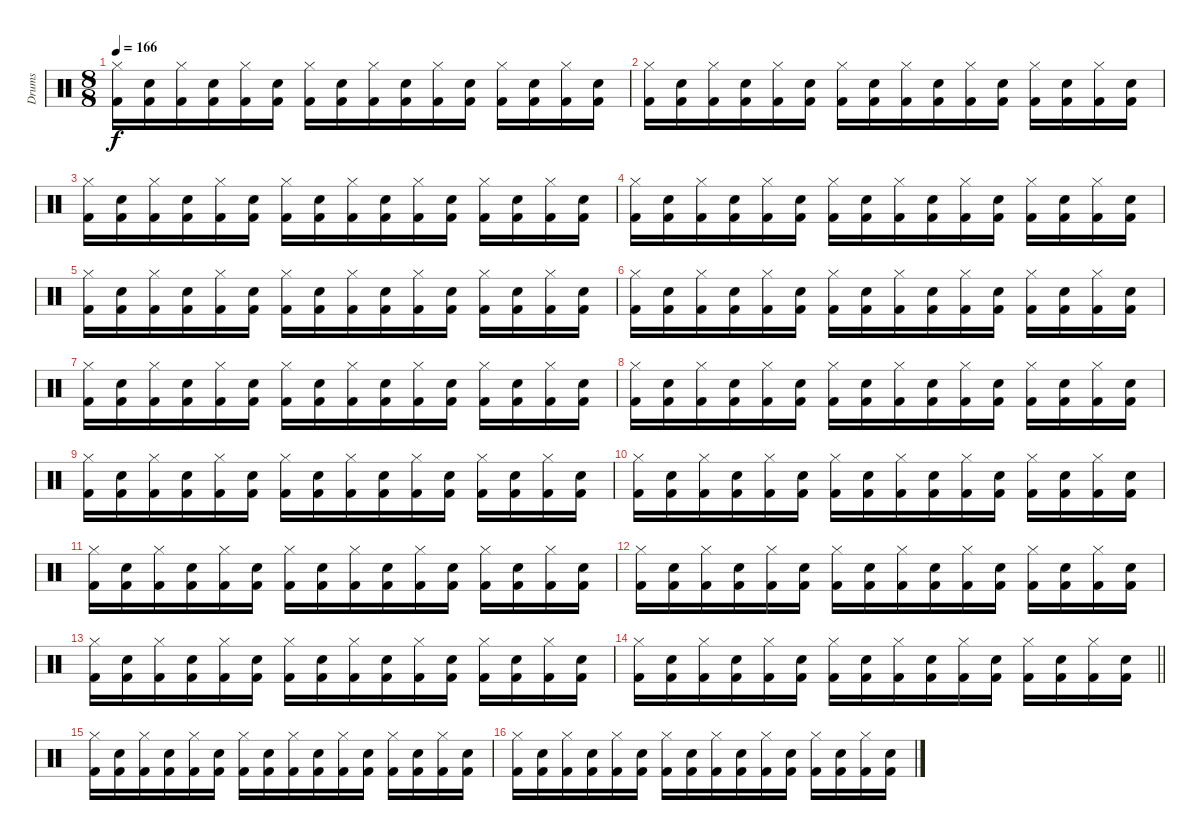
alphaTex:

\track ("Drums" "Drums") {instrument percussion}
\staff {score}
\articulation defaults
\ts (8 8)
\tempo 166
\clef neutral
\ks c
("Hi-Hat (closed)" "Kick (hit) 2").16{dy f} ("Electric Snare (hit)" "Kick (hit) 2").16 ("Hi-Hat (closed)" "Kick (hit) 2").16 ("Electric Snare (hit)" "Kick (hit) 2").16 ("Hi-Hat (closed)" "Kick (hit) 2").16 ("Electric Snare (hit)" "Kick (hit) 2").16 ("Hi-Hat (closed)" "Kick (hit) 2").16 ("Electric Snare (hit)" "Kick (hit) 2").16 ("Hi-Hat (closed)" "Kick (hit) 2").16 ("Electric Snare (hit)" "Kick (hit) 2").16 ("Hi-Hat (closed)" "Kick (hit) 2").16 ("Electric Snare (hit)" "Kick (hit) 2").16 ("Hi-Hat (closed)" "Kick (hit) 2").16 ("Electric Snare (hit)" "Kick (hit) 2").16 ("Hi-Hat (closed)" "Kick (hit) 2").16 ("Electric Snare (hit)" "Kick (hit) 2").16 |
("Hi-Hat (closed)" "Kick (hit) 2").16 ("Electric Snare (hit)" "Kick (hit) 2").16 ("Hi-Hat (closed)" "Kick (hit) 2").16 ("Electric Snare (hit)" "Kick (hit) 2").16 ("Hi-Hat (closed)" "Kick (hit) 2").16 ("Electric Snare (hit)" "Kick (hit) 2").16 ("Hi-Hat (closed)" "Kick (hit) 2").16 ("Electric Snare (hit)" "Kick (hit) 2").16 ("Hi-Hat (closed)" "Kick (hit) 2").16 ("Electric Snare (hit)" "Kick (hit) 2").16 ("Hi-Hat (closed)" "Kick (hit) 2").16 ("Electric Snare (hit)" "Kick (hit) 2").16 ("Hi-Hat (closed)" "Kick (hit) 2").16 ("Electric Snare (hit)" "Kick (hit) 2").16 ("Hi-Hat (closed)" "Kick (hit) 2").16 ("Electric Snare (hit)" "Kick (hit) 2").16 |
("Hi-Hat (closed)" "Kick (hit) 2").16 ("Electric Snare (hit)" "Kick (hit) 2").16 ("Hi-Hat (closed)" "Kick (hit) 2").16 ("Electric Snare (hit)" "Kick (hit) 2").16 ("Hi-Hat (closed)" "Kick (hit) 2").16 ("Electric Snare (hit)" "Kick (hit) 2").16 ("Hi-Hat (closed)" "Kick (hit) 2").16 ("Electric Snare (hit)" "Kick (hit) 2").16 ("Hi-Hat (closed)" "Kick (hit) 2").16 ("Electric Snare (hit)" "Kick (hit) 2").16 ("Hi-Hat (closed)" "Kick (hit) 2").16 ("Electric Snare (hit)" "Kick (hit) 2").16 ("Hi-Hat (closed)" "Kick (hit) 2").16 ("Electric Snare (hit)" "Kick (hit) 2").16 ("Hi-Hat (closed)" "Kick (hit) 2").16 ("Electric Snare (hit)" "Kick (hit) 2").16 |
("Hi-Hat (closed)" "Kick (hit) 2").16 ("Electric Snare (hit)" "Kick (hit) 2").16 ("Hi-Hat (closed)" "Kick (hit) 2").16 ("Electric Snare (hit)" "Kick (hit) 2").16 ("Hi-Hat (closed)" "Kick (hit) 2").16 ("Electric Snare (hit)" "Kick (hit) 2").16 ("Hi-Hat (closed)" "Kick (hit) 2").16 ("Electric Snare (hit)" "Kick (hit) 2").16 ("Hi-Hat (closed)" "Kick (hit) 2").16 ("Electric Snare (hit)" "Kick (hit) 2").16 ("Hi-Hat (closed)" "Kick (hit) 2").16 ("Electric Snare (hit)" "Kick (hit) 2").16 ("Hi-Hat (closed)" "Kick (hit) 2").16 ("Electric Snare (hit)" "Kick (hit) 2").16 ("Hi-Hat (closed)" "Kick (hit) 2").16 ("Electric Snare (hit)" "Kick (hit) 2").16 |
("Hi-Hat (closed)" "Kick (hit) 2").16 ("Electric Snare (hit)" "Kick (hit) 2").16 ("Hi-Hat (closed)" "Kick (hit) 2").16 ("Electric Snare (hit)" "Kick (hit) 2").16 ("Hi-Hat (closed)" "Kick (hit) 2").16 ("Electric Snare (hit)" "Kick (hit) 2").16 ("Hi-Hat (closed)" "Kick (hit) 2").16 ("Electric Snare (hit)" "Kick (hit) 2").16 ("Hi-Hat (closed)" "Kick (hit) 2").16 ("Electric Snare (hit)" "Kick (hit) 2").16 ("Hi-Hat (closed)" "Kick (hit) 2").16 ("Electric Snare (hit)" "Kick (hit) 2").16 ("Hi-Hat (closed)" "Kick (hit) 2").16 ("Electric Snare (hit)" "Kick (hit) 2").16 ("Hi-Hat (closed)" "Kick (hit) 2").16 ("Electric Snare (hit)" "Kick (hit) 2").16 |
("Hi-Hat (closed)" "Kick (hit) 2").16 ("Electric Snare (hit)" "Kick (hit) 2").16 ("Hi-Hat (closed)" "Kick (hit) 2").16 ("Electric Snare (hit)" "Kick (hit) 2").16 ("Hi-Hat (closed)" "Kick (hit) 2").16 ("Electric Snare (hit)" "Kick (hit) 2").16 ("Hi-Hat (closed)" "Kick (hit) 2").16 ("Electric Snare (hit)" "Kick (hit) 2").16 ("Hi-Hat (closed)" "Kick (hit) 2").16 ("Electric Snare (hit)" "Kick (hit) 2").16 ("Hi-Hat (closed)" "Kick (hit) 2").16 ("Electric Snare (hit)" "Kick (hit) 2").16 ("Hi-Hat (closed)" "Kick (hit) 2").16 ("Electric Snare (hit)" "Kick (hit) 2").16 ("Hi-Hat (closed)" "Kick (hit) 2").16 ("Electric Snare (hit)" "Kick (hit) 2").16 |
("Hi-Hat (closed)" "Kick (hit) 2").16 ("Electric Snare (hit)" "Kick (hit) 2").16 ("Hi-Hat (closed)" "Kick (hit) 2").16 ("Electric Snare (hit)" "Kick (hit) 2").16 ("Hi-Hat (closed)" "Kick (hit) 2").16 ("Electric Snare (hit)" "Kick (hit) 2").16 ("Hi-Hat (closed)" "Kick (hit) 2").16 ("Electric Snare (hit)" "Kick (hit) 2").16 ("Hi-Hat (closed)" "Kick (hit) 2").16 ("Electric Snare (hit)" "Kick (hit) 2").16 ("Hi-Hat (closed)" "Kick (hit) 2").16 ("Electric Snare (hit)" "Kick (hit) 2").16 ("Hi-Hat (closed)" "Kick (hit) 2").16 ("Electric Snare (hit)" "Kick (hit) 2").16 ("Hi-Hat (closed)" "Kick (hit) 2").16 ("Electric Snare (hit)" "Kick (hit) 2").16 |
("Hi-Hat (closed)" "Kick (hit) 2").16 ("Electric Snare (hit)" "Kick (hit) 2").16 ("Hi-Hat (closed)" "Kick (hit) 2").16 ("Electric Snare (hit)" "Kick (hit) 2").16 ("Hi-Hat (closed)" "Kick (hit) 2").16 ("Electric Snare (hit)" "Kick (hit) 2").16 ("Hi-Hat (closed)" "Kick (hit) 2").16 ("Electric Snare (hit)" "Kick (hit) 2").16 ("Hi-Hat (closed)" "Kick (hit) 2").16 ("Electric Snare (hit)" "Kick (hit) 2").16 ("Hi-Hat (closed)" "Kick (hit) 2").16 ("Electric Snare (hit)" "Kick (hit) 2").16 ("Hi-Hat (closed)" "Kick (hit) 2").16 ("Electric Snare (hit)" "Kick (hit) 2").16 ("Hi-Hat (closed)" "Kick (hit) 2").16 ("Electric Snare (hit)" "Kick (hit) 2").16 |
("Hi-Hat (closed)" "Kick (hit) 2").16 ("Electric Snare (hit)" "Kick (hit) 2").16 ("Hi-Hat (closed)" "Kick (hit) 2").16 ("Electric Snare (hit)" "Kick (hit) 2").16 ("Hi-Hat (closed)" "Kick (hit) 2").16 ("Electric Snare (hit)" "Kick (hit) 2").16 ("Hi-Hat (closed)" "Kick (hit) 2").16 ("Electric Snare (hit)" "Kick (hit) 2").16 ("Hi-Hat (closed)" "Kick (hit) 2").16 ("Electric Snare (hit)" "Kick (hit) 2").16 ("Hi-Hat (closed)" "Kick (hit) 2").16 ("Electric Snare (hit)" "Kick (hit) 2").16 ("Hi-Hat (closed)" "Kick (hit) 2").16 ("Electric Snare (hit)" "Kick (hit) 2").16 ("Hi-Hat (closed)" "Kick (hit) 2").16 ("Electric Snare (hit)" "Kick (hit) 2").16 |
("Hi-Hat (closed)" "Kick (hit) 2").16 ("Electric Snare (hit)" "Kick (hit) 2").16 ("Hi-Hat (closed)" "Kick (hit) 2").16 ("Electric Snare (hit)" "Kick (hit) 2").16 ("Hi-Hat (closed)" "Kick (hit) 2").16 ("Electric Snare (hit)" "Kick (hit) 2").16 ("Hi-Hat (closed)" "Kick (hit) 2").16 ("Electric Snare (hit)" "Kick (hit) 2").16 ("Hi-Hat (closed)" "Kick (hit) 2").16 ("Electric Snare (hit)" "Kick (hit) 2").16 ("Hi-Hat (closed)" "Kick (hit) 2").16 ("Electric Snare (hit)" "Kick (hit) 2").16 ("Hi-Hat (closed)" "Kick (hit) 2").16 ("Electric Snare (hit)" "Kick (hit) 2").16 ("Hi-Hat (closed)" "Kick (hit) 2").16 ("Electric Snare (hit)" "Kick (hit) 2").16 |
("Hi-Hat (closed)" "Kick (hit) 2").16 ("Electric Snare (hit)" "Kick (hit) 2").16 ("Hi-Hat (closed)" "Kick (hit) 2").16 ("Electric Snare (hit)" "Kick (hit) 2").16 ("Hi-Hat (closed)" "Kick (hit) 2").16 ("Electric Snare (hit)" "Kick (hit) 2").16 ("Hi-Hat (closed)" "Kick (hit) 2").16 ("Electric Snare (hit)" "Kick (hit) 2").16 ("Hi-Hat (closed)" "Kick (hit) 2").16 ("Electric Snare (hit)" "Kick (hit) 2").16 ("Hi-Hat (closed)" "Kick (hit) 2").16 ("Electric Snare (hit)" "Kick (hit) 2").16 ("Hi-Hat (closed)" "Kick (hit) 2").16 ("Electric Snare (hit)" "Kick (hit) 2").16 ("Hi-Hat (closed)" "Kick (hit) 2").16 ("Electric Snare (hit)" "Kick (hit) 2").16 |
("Hi-Hat (closed)" "Kick (hit) 2").16 ("Electric Snare (hit)" "Kick (hit) 2").16 ("Hi-Hat (closed)" "Kick (hit) 2").16 ("Electric Snare (hit)" "Kick (hit) 2").16 ("Hi-Hat (closed)" "Kick (hit) 2").16 ("Electric Snare (hit)" "Kick (hit) 2").16 ("Hi-Hat (closed)" "Kick (hit) 2").16 ("Electric Snare (hit)" "Kick (hit) 2").16 ("Hi-Hat (closed)" "Kick (hit) 2").16 ("Electric Snare (hit)" "Kick (hit) 2").16 ("Hi-Hat (closed)" "Kick (hit) 2").16 ("Electric Snare (hit)" "Kick (hit) 2").16 ("Hi-Hat (closed)" "Kick (hit) 2").16 ("Electric Snare (hit)" "Kick (hit) 2").16 ("Hi-Hat (closed)" "Kick (hit) 2").16 ("Electric Snare (hit)" "Kick (hit) 2").16 |
("Hi-Hat (closed)" "Kick (hit) 2").16 ("Electric Snare (hit)" "Kick (hit) 2").16 ("Hi-Hat (closed)" "Kick (hit) 2").16 ("Electric Snare (hit)" "Kick (hit) 2").16 ("Hi-Hat (closed)" "Kick (hit) 2").16 ("Electric Snare (hit)" "Kick (hit) 2").16 ("Hi-Hat (closed)" "Kick (hit) 2").16 ("Electric Snare (hit)" "Kick (hit) 2").16 ("Hi-Hat (closed)" "Kick (hit) 2").16 ("Electric Snare (hit)" "Kick (hit) 2").16 ("Hi-Hat (closed)" "Kick (hit) 2").16 ("Electric Snare (hit)" "Kick (hit) 2").16 ("Hi-Hat (closed)" "Kick (hit) 2").16 ("Electric Snare (hit)" "Kick (hit) 2").16 ("Hi-Hat (closed)" "Kick (hit) 2").16 ("Electric Snare (hit)" "Kick (hit) 2").16 |
\barLineRight lightlight
("Hi-Hat (closed)" "Kick (hit) 2").16 ("Electric Snare (hit)" "Kick (hit) 2").16 ("Hi-Hat (closed)" "Kick (hit) 2").16 ("Electric Snare (hit)" "Kick (hit) 2").16 ("Hi-Hat (closed)" "Kick (hit) 2").16 ("Electric Snare (hit)" "Kick (hit) 2").16 ("Hi-Hat (closed)" "Kick (hit) 2").16 ("Electric Snare (hit)" "Kick (hit) 2").16 ("Hi-Hat (closed)" "Kick (hit) 2").16 ("Electric Snare (hit)" "Kick (hit) 2").16 ("Hi-Hat (closed)" "Kick (hit) 2").16 ("Electric Snare (hit)" "Kick (hit) 2").16 ("Hi-Hat (closed)" "Kick (hit) 2").16 ("Electric Snare (hit)" "Kick (hit) 2").16 ("Hi-Hat (closed)" "Kick (hit) 2").16 ("Electric Snare (hit)" "Kick (hit) 2").16 |
\section ("" "")
("Hi-Hat (closed)" "Kick (hit) 2").16 ("Electric Snare (hit)" "Kick (hit) 2").16 ("Hi-Hat (closed)" "Kick (hit) 2").16 ("Electric Snare (hit)" "Kick (hit) 2").16 ("Hi-Hat (closed)" "Kick (hit) 2").16 ("Electric Snare (hit)" "Kick (hit) 2").16 ("Hi-Hat (closed)" "Kick (hit) 2").16 ("Electric Snare (hit)" "Kick (hit) 2").16 ("Hi-Hat (closed)" "Kick (hit) 2").16 ("Electric Snare (hit)" "Kick (hit) 2").16 ("Hi-Hat (closed)" "Kick (hit) 2").16 ("Electric Snare (hit)" "Kick (hit) 2").16 ("Hi-Hat (closed)" "Kick (hit) 2").16 ("Electric Snare (hit)" "Kick (hit) 2").16 ("Hi-Hat (closed)" "Kick (hit) 2").16 ("Electric Snare (hit)" "Kick (hit) 2").16 |
("Hi-Hat (closed)" "Kick (hit) 2").16 ("Electric Snare (hit)" "Kick (hit) 2").16 ("Hi-Hat (closed)" "Kick (hit) 2").16 ("Electric Snare (hit)" "Kick (hit) 2").16 ("Hi-Hat (closed)" "Kick (hit) 2").16 ("Electric Snare (hit)" "Kick (hit) 2").16 ("Hi-Hat (closed)" "Kick (hit) 2").16 ("Electric Snare (hit)" "Kick (hit) 2").16 ("Hi-Hat (closed)" "Kick (hit) 2").16 ("Electric Snare (hit)" "Kick (hit) 2").16 ("Hi-Hat (closed)" "Kick (hit) 2").16 ("Electric Snare (hit)" "Kick (hit) 2").16 ("Hi-Hat (closed)" "Kick (hit) 2").16 ("Electric Snare (hit)" "Kick (hit) 2").16 ("Hi-Hat (closed)" "Kick (hit) 2").16 ("Electric Snare (hit)" "Kick (hit) 2").16
